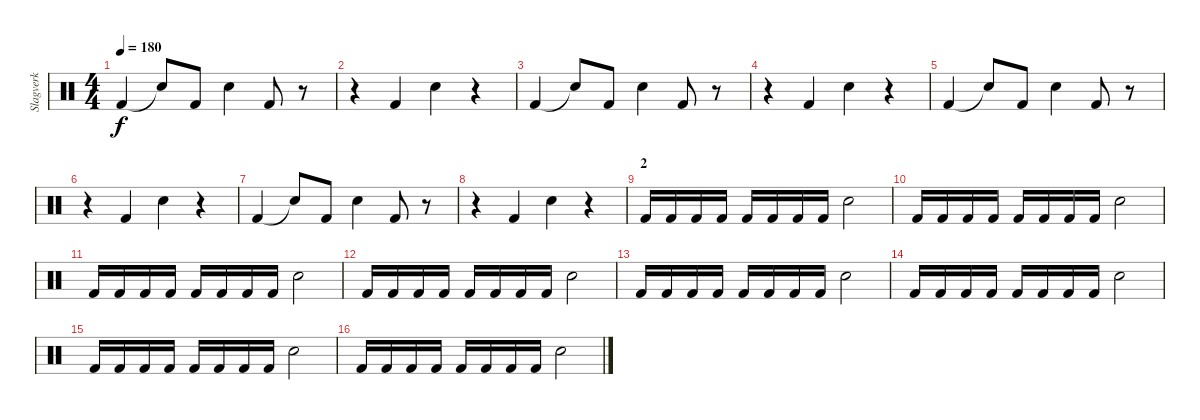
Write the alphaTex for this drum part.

\track ("Slagverk" "Slagverk") {instrument percussion}
\staff {score}
\articulation defaults
\ts (4 4)
\tempo 180
\clef neutral
\ks c "Kick (hit) 2".4{dy f} "Snare (hit)"{t}.8 "Kick (hit) 2".8 "Electric Snare (hit)".4 "Kick (hit) 2".8
r.8 |
r.4 "Kick (hit) 2".4 "Electric Snare (hit)".4 r.4 |
"Kick (hit) 2".4 "Snare (hit)"{t}.8 "Kick (hit) 2".8 "Electric Snare (hit)".4 "Kick (hit) 2".8 r.8 |
r.4 "Kick (hit) 2".4 "Electric Snare (hit)".4 r.4 |
"Kick (hit) 2".4 "Snare (hit)"{t}.8 "Kick (hit) 2".8 "Electric Snare (hit)".4 "Kick (hit) 2".8 r.8 |
r.4 "Kick (hit) 2".4 "Electric Snare (hit)".4 r.4 |
"Kick (hit) 2".4 "Snare (hit)"{t}.8 "Kick (hit) 2".8 "Electric Snare (hit)".4 "Kick (hit) 2".8 r.8 |
r.4 "Kick (hit) 2".4 "Electric Snare (hit)".4 r.4 |
\section ("" "2")
"Kick (hit) 2".16 "Kick (hit) 2".16 "Kick (hit) 2".16 "Kick (hit) 2".16 "Kick (hit) 2".16 "Kick (hit) 2".16 "Kick (hit) 2".16 "Kick (hit) 2".16 "Electric Snare (hit)".2 |
"Kick (hit) 2".16 "Kick (hit) 2".16 "Kick (hit) 2".16 "Kick (hit) 2".16 "Kick (hit) 2".16 "Kick (hit) 2".16 "Kick (hit) 2".16 "Kick (hit) 2".16 "Electric Snare (hit)".2 |
"Kick (hit) 2".16 "Kick (hit) 2".16 "Kick (hit) 2".16 "Kick (hit) 2".16 "Kick (hit) 2".16 "Kick (hit) 2".16 "Kick (hit) 2".16 "Kick (hit) 2".16 "Electric Snare (hit)".2 |
"Kick (hit) 2".16 "Kick (hit) 2".16 "Kick (hit) 2".16 "Kick (hit) 2".16 "Kick (hit) 2".16 "Kick (hit) 2".16 "Kick (hit) 2".16 "Kick (hit) 2".16 "Electric Snare (hit)".2 |
"Kick (hit) 2".16 "Kick (hit) 2".16 "Kick (hit) 2".16 "Kick (hit) 2".16 "Kick (hit) 2".16 "Kick (hit) 2".16 "Kick (hit) 2".16 "Kick (hit) 2".16 "Electric Snare (hit)".2 |
"Kick (hit) 2".16 "Kick (hit) 2".16 "Kick (hit) 2".16 "Kick (hit) 2".16 "Kick (hit) 2".16 "Kick (hit) 2".16 "Kick (hit) 2".16 "Kick (hit) 2".16 "Electric Snare (hit)".2 |
"Kick (hit) 2".16 "Kick (hit) 2".16 "Kick (hit) 2".16 "Kick (hit) 2".16 "Kick (hit) 2".16 "Kick (hit) 2".16 "Kick (hit) 2".16 "Kick (hit) 2".16 "Electric Snare (hit)".2 |
"Kick (hit) 2".16 "Kick (hit) 2".16 "Kick (hit) 2".16 "Kick (hit) 2".16 "Kick (hit) 2".16 "Kick (hit) 2".16 "Kick (hit) 2".16 "Kick (hit) 2".16 "Electric Snare (hit)".2
